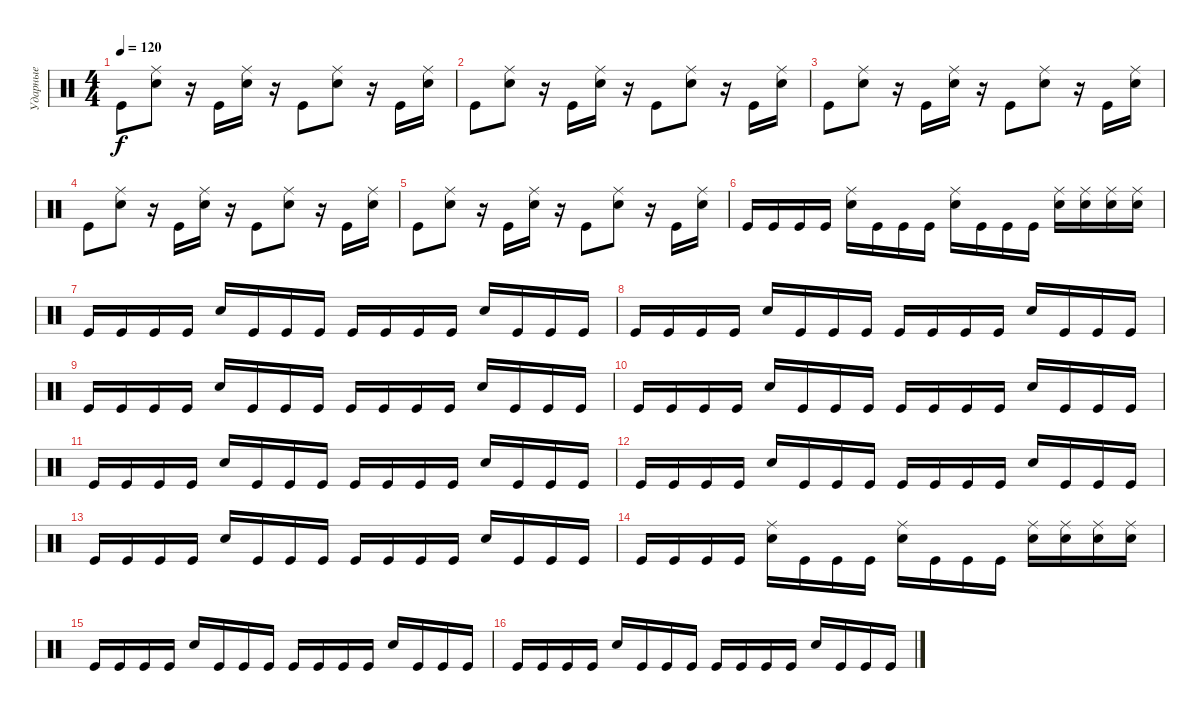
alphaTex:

\track ("Ударные" "Ударные") {instrument percussion}
\staff {score}
\articulation defaults
\ts (4 4)
\tempo 120
\clef neutral
\ks c "Kick (hit)".8{dy f}
("Ride (middle)" "Snare (hit) 2").8 r.16 "Kick (hit)".16 ("Ride (middle)" "Snare (hit) 2").16 r.16 "Kick (hit)".8 ("Ride (middle)" "Snare (hit) 2").8 r.16 "Kick (hit)".16 ("Ride (middle)" "Snare (hit) 2").16 |
"Kick (hit)".8 ("Ride (middle)" "Snare (hit) 2").8 r.16 "Kick (hit)".16 ("Ride (middle)" "Snare (hit) 2").16 r.16 "Kick (hit)".8 ("Ride (middle)" "Snare (hit) 2").8 r.16 "Kick (hit)".16 ("Ride (middle)" "Snare (hit) 2").16 |
"Kick (hit)".8 ("Ride (middle)" "Snare (hit) 2").8 r.16 "Kick (hit)".16 ("Ride (middle)" "Snare (hit) 2").16 r.16 "Kick (hit)".8 ("Ride (middle)" "Snare (hit) 2").8 r.16 "Kick (hit)".16 ("Ride (middle)" "Snare (hit) 2").16 |
"Kick (hit)".8 ("Ride (middle)" "Snare (hit) 2").8 r.16 "Kick (hit)".16 ("Ride (middle)" "Snare (hit) 2").16 r.16 "Kick (hit)".8 ("Ride (middle)" "Snare (hit) 2").8 r.16 "Kick (hit)".16 ("Ride (middle)" "Snare (hit) 2").16 |
"Kick (hit)".8 ("Ride (middle)" "Snare (hit) 2").8 r.16 "Kick (hit)".16 ("Ride (middle)" "Snare (hit) 2").16 r.16 "Kick (hit)".8 ("Ride (middle)" "Snare (hit) 2").8 r.16 "Kick (hit)".16 ("Ride (middle)" "Snare (hit) 2").16 |
"Kick (hit)".16 "Kick (hit)".16 "Kick (hit)".16 "Kick (hit)".16 ("Ride (middle)" "Snare (hit) 2").16 "Kick (hit)".16 "Kick (hit)".16 "Kick (hit)".16 ("Ride (middle)" "Snare (hit) 2").16 "Kick (hit)".16 "Kick (hit)".16 "Kick (hit)".16 ("Ride (middle)" "Snare (hit) 2").16 ("Ride (middle)" "Snare (hit) 2").16 ("Ride (middle)" "Snare (hit) 2").16 ("Ride (middle)" "Snare (hit) 2").16 |
"Kick (hit)".16 "Kick (hit)".16 "Kick (hit)".16 "Kick (hit)".16 "Snare (hit) 2".16 "Kick (hit)".16 "Kick (hit)".16 "Kick (hit)".16 "Kick (hit)".16 "Kick (hit)".16 "Kick (hit)".16 "Kick (hit)".16 "Snare (hit) 2".16 "Kick (hit)".16 "Kick (hit)".16 "Kick (hit)".16 |
"Kick (hit)".16 "Kick (hit)".16 "Kick (hit)".16 "Kick (hit)".16 "Snare (hit) 2".16 "Kick (hit)".16 "Kick (hit)".16 "Kick (hit)".16 "Kick (hit)".16 "Kick (hit)".16 "Kick (hit)".16 "Kick (hit)".16 "Snare (hit) 2".16 "Kick (hit)".16 "Kick (hit)".16 "Kick (hit)".16 |
"Kick (hit)".16 "Kick (hit)".16 "Kick (hit)".16 "Kick (hit)".16 "Snare (hit) 2".16 "Kick (hit)".16 "Kick (hit)".16 "Kick (hit)".16 "Kick (hit)".16 "Kick (hit)".16 "Kick (hit)".16 "Kick (hit)".16 "Snare (hit) 2".16 "Kick (hit)".16 "Kick (hit)".16 "Kick (hit)".16 |
"Kick (hit)".16 "Kick (hit)".16 "Kick (hit)".16 "Kick (hit)".16 "Snare (hit) 2".16 "Kick (hit)".16 "Kick (hit)".16 "Kick (hit)".16 "Kick (hit)".16 "Kick (hit)".16 "Kick (hit)".16 "Kick (hit)".16 "Snare (hit) 2".16 "Kick (hit)".16 "Kick (hit)".16 "Kick (hit)".16 |
"Kick (hit)".16 "Kick (hit)".16 "Kick (hit)".16 "Kick (hit)".16 "Snare (hit) 2".16 "Kick (hit)".16 "Kick (hit)".16 "Kick (hit)".16 "Kick (hit)".16 "Kick (hit)".16 "Kick (hit)".16 "Kick (hit)".16 "Snare (hit) 2".16 "Kick (hit)".16 "Kick (hit)".16 "Kick (hit)".16 |
"Kick (hit)".16 "Kick (hit)".16 "Kick (hit)".16 "Kick (hit)".16 "Snare (hit) 2".16 "Kick (hit)".16 "Kick (hit)".16 "Kick (hit)".16 "Kick (hit)".16 "Kick (hit)".16 "Kick (hit)".16 "Kick (hit)".16 "Snare (hit) 2".16 "Kick (hit)".16 "Kick (hit)".16 "Kick (hit)".16 |
"Kick (hit)".16 "Kick (hit)".16 "Kick (hit)".16 "Kick (hit)".16 "Snare (hit) 2".16 "Kick (hit)".16 "Kick (hit)".16 "Kick (hit)".16 "Kick (hit)".16 "Kick (hit)".16 "Kick (hit)".16 "Kick (hit)".16 "Snare (hit) 2".16 "Kick (hit)".16 "Kick (hit)".16 "Kick (hit)".16 |
"Kick (hit)".16 "Kick (hit)".16 "Kick (hit)".16 "Kick (hit)".16 ("Ride (middle)" "Snare (hit) 2").16 "Kick (hit)".16 "Kick (hit)".16 "Kick (hit)".16 ("Ride (middle)" "Snare (hit) 2").16 "Kick (hit)".16 "Kick (hit)".16 "Kick (hit)".16 ("Ride (middle)" "Snare (hit) 2").16 ("Ride (middle)" "Snare (hit) 2").16 ("Ride (middle)" "Snare (hit) 2").16 ("Ride (middle)" "Snare (hit) 2").16 |
"Kick (hit)".16 "Kick (hit)".16 "Kick (hit)".16 "Kick (hit)".16 "Snare (hit) 2".16 "Kick (hit)".16 "Kick (hit)".16 "Kick (hit)".16 "Kick (hit)".16 "Kick (hit)".16 "Kick (hit)".16 "Kick (hit)".16 "Snare (hit) 2".16 "Kick (hit)".16 "Kick (hit)".16 "Kick (hit)".16 |
"Kick (hit)".16 "Kick (hit)".16 "Kick (hit)".16 "Kick (hit)".16 "Snare (hit) 2".16 "Kick (hit)".16 "Kick (hit)".16 "Kick (hit)".16 "Kick (hit)".16 "Kick (hit)".16 "Kick (hit)".16 "Kick (hit)".16 "Snare (hit) 2".16 "Kick (hit)".16 "Kick (hit)".16 "Kick (hit)".16
